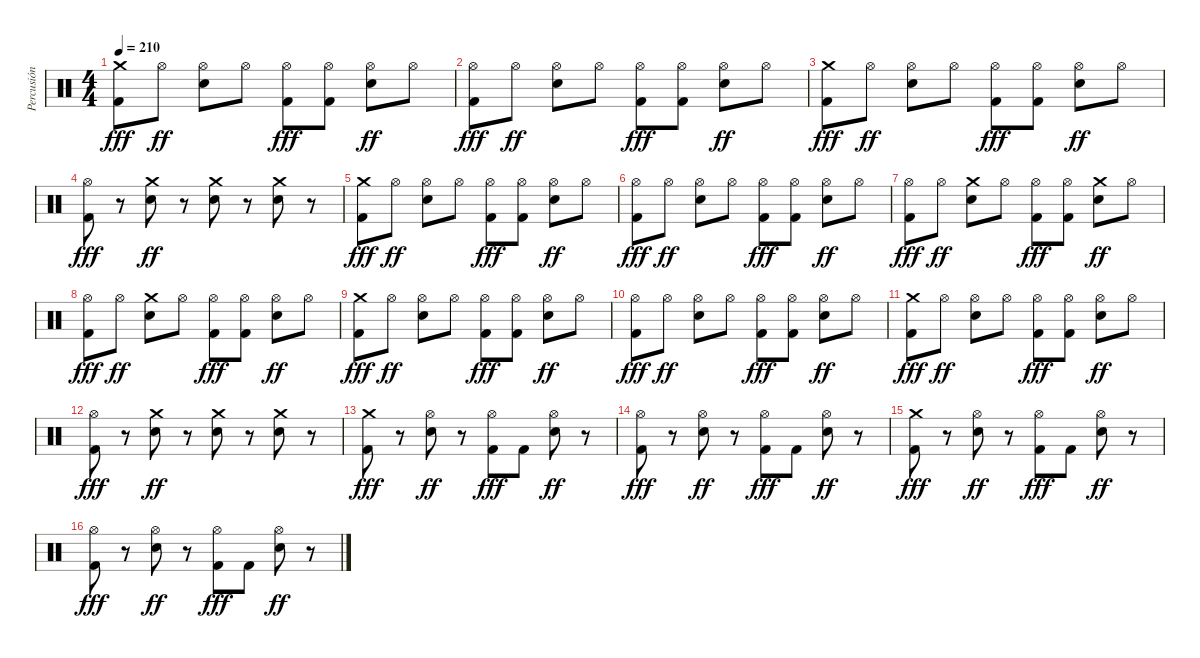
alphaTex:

\track ("Percusión" "Percusión") {instrument percussion}
\staff {score}
\articulation defaults
\ts (4 4)
\tempo 210
\clef neutral
\ks c
("Crash medium (hit)" "Kick (hit) 2").8{dy fff} "Hi-Hat (open)".8{dy ff} ("Hi-Hat (open)" "Electric Snare (hit)").8 "Hi-Hat (open)".8 ("Hi-Hat (open)" "Kick (hit) 2").8{dy fff} ("Hi-Hat (open)" "Kick (hit) 2").8 ("Hi-Hat (open)" "Electric Snare (hit)").8{dy ff} "Hi-Hat (open)".8 |
("Hi-Hat (open)" "Kick (hit) 2").8{dy fff} "Hi-Hat (open)".8{dy ff} ("Hi-Hat (open)" "Electric Snare (hit)").8 "Hi-Hat (open)".8 ("Hi-Hat (open)" "Kick (hit) 2").8{dy fff} ("Hi-Hat (open)" "Kick (hit) 2").8 ("Hi-Hat (open)" "Electric Snare (hit)").8{dy ff} "Hi-Hat (open)".8 |
("Crash medium (hit)" "Kick (hit) 2").8{dy fff} "Hi-Hat (open)".8{dy ff} ("Hi-Hat (open)" "Electric Snare (hit)").8 "Hi-Hat (open)".8 ("Hi-Hat (open)" "Kick (hit) 2").8{dy fff} ("Hi-Hat (open)" "Kick (hit) 2").8 ("Hi-Hat (open)" "Electric Snare (hit)").8{dy ff} "Hi-Hat (open)".8 |
("Hi-Hat (open)" "Kick (hit) 2").8{dy fff} r.8 ("Crash medium (hit)" "Electric Snare (hit)").8{dy ff} r.8 ("Crash medium (hit)" "Electric Snare (hit)").8 r.8 ("Crash medium (hit)" "Electric Snare (hit)").8 r.8 |
("Crash medium (hit)" "Kick (hit) 2").8{dy fff} "Hi-Hat (open)".8{dy ff} ("Hi-Hat (open)" "Electric Snare (hit)").8 "Hi-Hat (open)".8 ("Hi-Hat (open)" "Kick (hit) 2").8{dy fff} ("Hi-Hat (open)" "Kick (hit) 2").8 ("Hi-Hat (open)" "Electric Snare (hit)").8{dy ff} "Hi-Hat (open)".8 |
("Hi-Hat (open)" "Kick (hit) 2").8{dy fff} "Hi-Hat (open)".8{dy ff} ("Hi-Hat (open)" "Electric Snare (hit)").8 "Hi-Hat (open)".8 ("Hi-Hat (open)" "Kick (hit) 2").8{dy fff} ("Hi-Hat (open)" "Kick (hit) 2").8 ("Hi-Hat (open)" "Electric Snare (hit)").8{dy ff} "Hi-Hat (open)".8 |
("Hi-Hat (open)" "Kick (hit) 2").8{dy fff} "Hi-Hat (open)".8{dy ff} ("Crash medium (hit)" "Electric Snare (hit)").8 "Hi-Hat (open)".8 ("Hi-Hat (open)" "Kick (hit) 2").8{dy fff} ("Hi-Hat (open)" "Kick (hit) 2").8 ("Crash medium (hit)" "Electric Snare (hit)").8{dy ff} "Hi-Hat (open)".8 |
("Hi-Hat (open)" "Kick (hit) 2").8{dy fff} "Hi-Hat (open)".8{dy ff} ("Crash medium (hit)" "Electric Snare (hit)").8 "Hi-Hat (open)".8 ("Hi-Hat (open)" "Kick (hit) 2").8{dy fff} ("Hi-Hat (open)" "Kick (hit) 2").8 ("Hi-Hat (open)" "Electric Snare (hit)").8{dy ff} "Hi-Hat (open)".8 |
("Crash medium (hit)" "Kick (hit) 2").8{dy fff} "Hi-Hat (open)".8{dy ff} ("Hi-Hat (open)" "Electric Snare (hit)").8 "Hi-Hat (open)".8 ("Hi-Hat (open)" "Kick (hit) 2").8{dy fff} ("Hi-Hat (open)" "Kick (hit) 2").8 ("Hi-Hat (open)" "Electric Snare (hit)").8{dy ff} "Hi-Hat (open)".8 |
("Hi-Hat (open)" "Kick (hit) 2").8{dy fff} "Hi-Hat (open)".8{dy ff} ("Hi-Hat (open)" "Electric Snare (hit)").8 "Hi-Hat (open)".8 ("Hi-Hat (open)" "Kick (hit) 2").8{dy fff} ("Hi-Hat (open)" "Kick (hit) 2").8 ("Hi-Hat (open)" "Electric Snare (hit)").8{dy ff} "Hi-Hat (open)".8 |
("Crash medium (hit)" "Kick (hit) 2").8{dy fff} "Hi-Hat (open)".8{dy ff} ("Hi-Hat (open)" "Electric Snare (hit)").8 "Hi-Hat (open)".8 ("Hi-Hat (open)" "Kick (hit) 2").8{dy fff} ("Hi-Hat (open)" "Kick (hit) 2").8 ("Hi-Hat (open)" "Electric Snare (hit)").8{dy ff} "Hi-Hat (open)".8 |
("Hi-Hat (open)" "Kick (hit) 2").8{dy fff} r.8 ("Crash medium (hit)" "Electric Snare (hit)").8{dy ff} r.8 ("Crash medium (hit)" "Electric Snare (hit)").8 r.8 ("Crash medium (hit)" "Electric Snare (hit)").8 r.8 |
("Crash medium (hit)" "Kick (hit) 2").8{dy fff} r.8 ("Hi-Hat (open)" "Electric Snare (hit)").8{dy ff} r.8 ("Hi-Hat (open)" "Kick (hit) 2").8{dy fff} "Kick (hit) 2".8 ("Hi-Hat (open)" "Electric Snare (hit)").8{dy ff} r.8 |
("Hi-Hat (open)" "Kick (hit) 2").8{dy fff} r.8 ("Hi-Hat (open)" "Electric Snare (hit)").8{dy ff} r.8 ("Hi-Hat (open)" "Kick (hit) 2").8{dy fff} "Kick (hit) 2".8 ("Hi-Hat (open)" "Electric Snare (hit)").8{dy ff} r.8 |
("Crash medium (hit)" "Kick (hit) 2").8{dy fff} r.8 ("Hi-Hat (open)" "Electric Snare (hit)").8{dy ff} r.8 ("Hi-Hat (open)" "Kick (hit) 2").8{dy fff} "Kick (hit) 2".8 ("Hi-Hat (open)" "Electric Snare (hit)").8{dy ff} r.8 |
("Hi-Hat (open)" "Kick (hit) 2").8{dy fff} r.8 ("Hi-Hat (open)" "Electric Snare (hit)").8{dy ff} r.8 ("Hi-Hat (open)" "Kick (hit) 2").8{dy fff} "Kick (hit) 2".8 ("Hi-Hat (open)" "Electric Snare (hit)").8{dy ff} r.8
